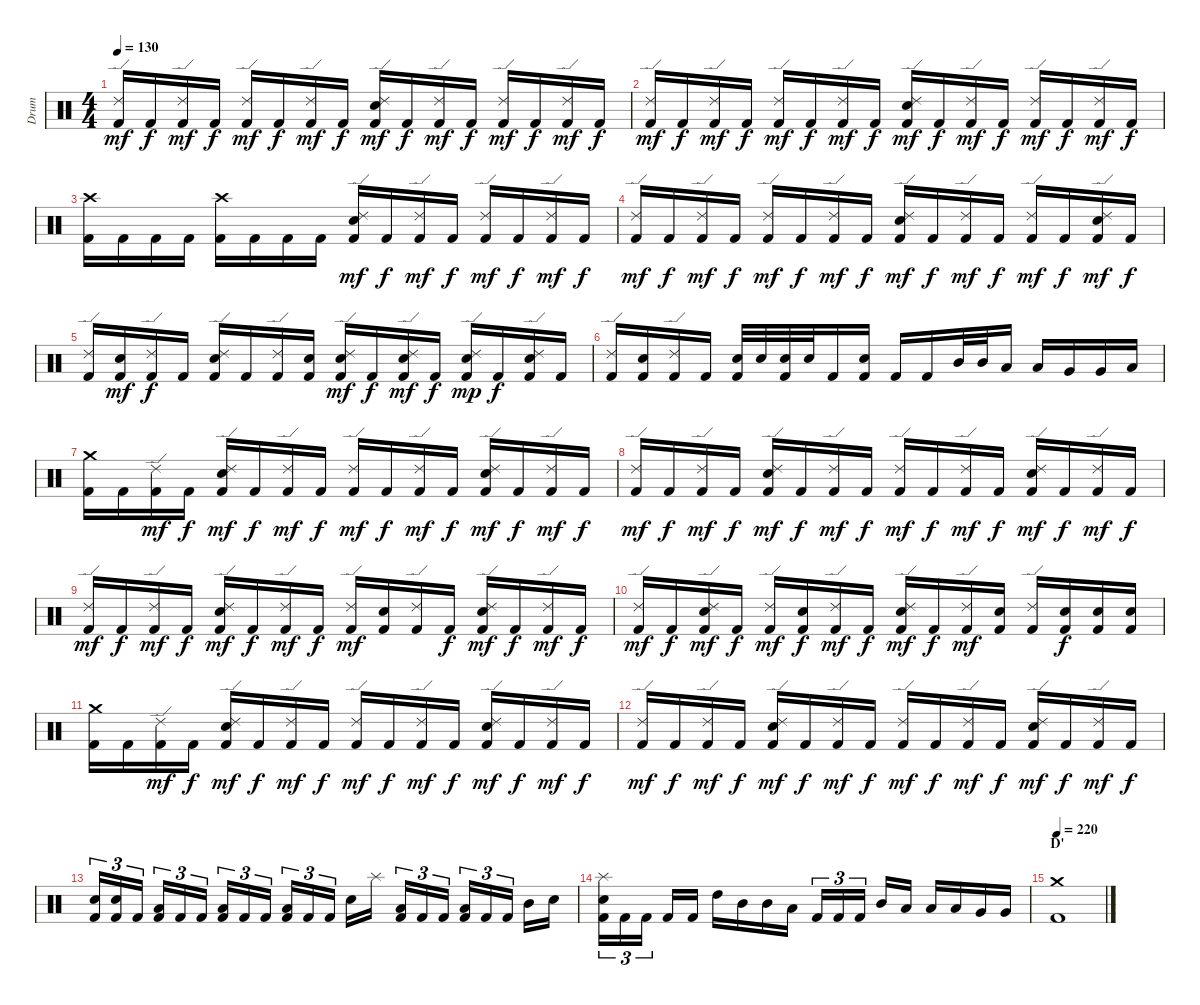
\track ("Drum" "Drum") {instrument percussion}
\staff {score}
\articulation defaults
\ts (4 4)
\tempo 130
\clef neutral
\ks c
("Ride (edge) 2" "Kick (hit) 2").16{dy mf} "Kick (hit) 2".16{dy f} ("Ride (edge) 2" "Kick (hit) 2").16{dy mf} "Kick (hit) 2".16{dy f} ("Ride (edge) 2" "Kick (hit) 2").16{dy mf} "Kick (hit) 2".16{dy f} ("Ride (edge) 2" "Kick (hit) 2").16{dy mf} "Kick (hit) 2".16{dy f} ("Ride (edge) 2" "Electric Snare (hit)" "Kick (hit) 2").16{dy mf} "Kick (hit) 2".16{dy f} ("Ride (edge) 2" "Kick (hit) 2").16{dy mf} "Kick (hit) 2".16{dy f} ("Ride (edge) 2" "Kick (hit) 2").16{dy mf} "Kick (hit) 2".16{dy f} ("Ride (edge) 2" "Kick (hit) 2").16{dy mf} "Kick (hit) 2".16{dy f} |
("Ride (edge) 2" "Kick (hit) 2").16{dy mf} "Kick (hit) 2".16{dy f} ("Ride (edge) 2" "Kick (hit) 2").16{dy mf} "Kick (hit) 2".16{dy f} ("Ride (edge) 2" "Kick (hit) 2").16{dy mf} "Kick (hit) 2".16{dy f} ("Ride (edge) 2" "Kick (hit) 2").16{dy mf} "Kick (hit) 2".16{dy f} ("Ride (edge) 2" "Electric Snare (hit)" "Kick (hit) 2").16{dy mf} "Kick (hit) 2".16{dy f} ("Ride (edge) 2" "Kick (hit) 2").16{dy mf} "Kick (hit) 2".16{dy f} ("Ride (edge) 2" "Kick (hit) 2").16{dy mf} "Kick (hit) 2".16{dy f} ("Ride (edge) 2" "Kick (hit) 2").16{dy mf} "Kick (hit) 2".16{dy f} |
("Crash high (hit)" "Kick (hit) 2").16 "Kick (hit) 2".16 "Kick (hit) 2".16 "Kick (hit) 2".16 ("Crash high (hit)" "Kick (hit) 2").16 "Kick (hit) 2".16 "Kick (hit) 2".16 "Kick (hit) 2".16 ("Ride (edge) 2" "Electric Snare (hit)" "Kick (hit) 2").16{dy mf} "Kick (hit) 2".16{dy f} ("Ride (edge) 2" "Kick (hit) 2").16{dy mf} "Kick (hit) 2".16{dy f} ("Ride (edge) 2" "Kick (hit) 2").16{dy mf} "Kick (hit) 2".16{dy f} ("Ride (edge) 2" "Kick (hit) 2").16{dy mf} "Kick (hit) 2".16{dy f} |
("Ride (edge) 2" "Kick (hit) 2").16{dy mf} "Kick (hit) 2".16{dy f} ("Ride (edge) 2" "Kick (hit) 2").16{dy mf} "Kick (hit) 2".16{dy f} ("Ride (edge) 2" "Kick (hit) 2").16{dy mf} "Kick (hit) 2".16{dy f} ("Ride (edge) 2" "Kick (hit) 2").16{dy mf} "Kick (hit) 2".16{dy f} ("Ride (edge) 2" "Electric Snare (hit)" "Kick (hit) 2").16{dy mf} "Kick (hit) 2".16{dy f} ("Ride (edge) 2" "Kick (hit) 2").16{dy mf} "Kick (hit) 2".16{dy f} ("Ride (edge) 2" "Kick (hit) 2").16{dy mf} "Kick (hit) 2".16{dy f} ("Ride (edge) 2" "Electric Snare (hit)" "Kick (hit) 2").16{dy mf} "Kick (hit) 2".16{dy f} |
("Ride (edge) 2" "Kick (hit) 2").16 ("Electric Snare (hit)" "Kick (hit) 2").16{dy mf} ("Ride (edge) 2" "Kick (hit) 2").16{dy f} "Kick (hit) 2".16 ("Ride (edge) 2" "Electric Snare (hit)" "Kick (hit) 2").16 "Kick (hit) 2".16 ("Ride (edge) 2" "Kick (hit) 2").16 ("Electric Snare (hit)" "Kick (hit) 2").16 ("Ride (edge) 2" "Electric Snare (hit)" "Kick (hit) 2").16{dy mf} "Kick (hit) 2".16{dy f} ("Ride (edge) 2" "Electric Snare (hit)" "Kick (hit) 2").16{dy mf} "Kick (hit) 2".16{dy f} ("Ride (edge) 2" "Electric Snare (hit)" "Kick (hit) 2").16{dy mp} "Kick (hit) 2".16{dy f} ("Ride (edge) 2" "Electric Snare (hit)" "Kick (hit) 2").16 "Kick (hit) 2".16 |
("Ride (edge) 2" "Kick (hit) 2").16 ("Electric Snare (hit)" "Kick (hit) 2").16 ("Ride (edge) 2" "Kick (hit) 2").16 "Kick (hit) 2".16 ("Electric Snare (hit)" "Kick (hit) 2").32 "Electric Snare (hit)".32 ("Electric Snare (hit)" "Kick (hit) 2").32 "Electric Snare (hit)".32 "Kick (hit) 2".16 ("Electric Snare (hit)" "Kick (hit) 2").16 "Kick (hit) 2".16 "Kick (hit) 2".16 "Mid Tom (hit)".32 "Mid Tom (hit)".32 "Low Tom (hit)".16 "Low Tom (hit)".16 "Very Low Tom (hit)".16 "Very Low Tom (hit)".16 "Low Floor Tom (hit)".16 |
("Crash medium (hit)" "Kick (hit) 2").16 "Kick (hit) 2".16 ("Ride (edge) 2" "Kick (hit) 2").16{dy mf} "Kick (hit) 2".16{dy f} ("Ride (edge) 2" "Electric Snare (hit)" "Kick (hit) 2").16{dy mf} "Kick (hit) 2".16{dy f} ("Ride (edge) 2" "Kick (hit) 2").16{dy mf} "Kick (hit) 2".16{dy f} ("Ride (edge) 2" "Kick (hit) 2").16{dy mf} "Kick (hit) 2".16{dy f} ("Ride (edge) 2" "Kick (hit) 2").16{dy mf} "Kick (hit) 2".16{dy f} ("Ride (edge) 2" "Electric Snare (hit)" "Kick (hit) 2").16{dy mf} "Kick (hit) 2".16{dy f} ("Ride (edge) 2" "Kick (hit) 2").16{dy mf} "Kick (hit) 2".16{dy f} |
("Ride (edge) 2" "Kick (hit) 2").16{dy mf} "Kick (hit) 2".16{dy f} ("Ride (edge) 2" "Kick (hit) 2").16{dy mf} "Kick (hit) 2".16{dy f} ("Ride (edge) 2" "Electric Snare (hit)" "Kick (hit) 2").16{dy mf} "Kick (hit) 2".16{dy f} ("Ride (edge) 2" "Kick (hit) 2").16{dy mf} "Kick (hit) 2".16{dy f} ("Ride (edge) 2" "Kick (hit) 2").16{dy mf} "Kick (hit) 2".16{dy f} ("Ride (edge) 2" "Kick (hit) 2").16{dy mf} "Kick (hit) 2".16{dy f} ("Ride (edge) 2" "Electric Snare (hit)" "Kick (hit) 2").16{dy mf} "Kick (hit) 2".16{dy f} ("Ride (edge) 2" "Kick (hit) 2").16{dy mf} "Kick (hit) 2".16{dy f} |
("Ride (edge) 2" "Kick (hit) 2").16{dy mf} "Kick (hit) 2".16{dy f} ("Ride (edge) 2" "Kick (hit) 2").16{dy mf} "Kick (hit) 2".16{dy f} ("Ride (edge) 2" "Electric Snare (hit)" "Kick (hit) 2").16{dy mf} "Kick (hit) 2".16{dy f} ("Ride (edge) 2" "Kick (hit) 2").16{dy mf} "Kick (hit) 2".16{dy f} ("Ride (edge) 2" "Kick (hit) 2").16{dy mf} ("Electric Snare (hit)" "Kick (hit) 2").16 ("Ride (edge) 2" "Kick (hit) 2").16 "Kick (hit) 2".16{dy f} ("Ride (edge) 2" "Electric Snare (hit)" "Kick (hit) 2").16{dy mf} "Kick (hit) 2".16{dy f} ("Ride (edge) 2" "Kick (hit) 2").16{dy mf} "Kick (hit) 2".16{dy f} |
("Ride (edge) 2" "Kick (hit) 2").16{dy mf} "Kick (hit) 2".16{dy f} ("Ride (edge) 2" "Electric Snare (hit)" "Kick (hit) 2").16{dy mf} "Kick (hit) 2".16{dy f} ("Ride (edge) 2" "Kick (hit) 2").16{dy mf} ("Electric Snare (hit)" "Kick (hit) 2").16{dy f} ("Ride (edge) 2" "Kick (hit) 2").16{dy mf} "Kick (hit) 2".16{dy f} ("Ride (edge) 2" "Electric Snare (hit)" "Kick (hit) 2").16{dy mf} "Kick (hit) 2".16{dy f} ("Ride (edge) 2" "Kick (hit) 2").16{dy mf} ("Electric Snare (hit)" "Kick (hit) 2").16 ("Ride (edge) 2" "Kick (hit) 2").16 ("Electric Snare (hit)" "Kick (hit) 2").16{dy f} ("Electric Snare (hit)" "Kick (hit) 2").16 ("Electric Snare (hit)" "Kick (hit) 2").16 |
("Crash medium (hit)" "Kick (hit) 2").16 "Kick (hit) 2".16 ("Ride (edge) 2" "Kick (hit) 2").16{dy mf} "Kick (hit) 2".16{dy f} ("Ride (edge) 2" "Electric Snare (hit)" "Kick (hit) 2").16{dy mf} "Kick (hit) 2".16{dy f} ("Ride (edge) 2" "Kick (hit) 2").16{dy mf} "Kick (hit) 2".16{dy f} ("Ride (edge) 2" "Kick (hit) 2").16{dy mf} "Kick (hit) 2".16{dy f} ("Ride (edge) 2" "Kick (hit) 2").16{dy mf} "Kick (hit) 2".16{dy f} ("Ride (edge) 2" "Electric Snare (hit)" "Kick (hit) 2").16{dy mf} "Kick (hit) 2".16{dy f} ("Ride (edge) 2" "Kick (hit) 2").16{dy mf} "Kick (hit) 2".16{dy f} |
("Ride (edge) 2" "Kick (hit) 2").16{dy mf} "Kick (hit) 2".16{dy f} ("Ride (edge) 2" "Kick (hit) 2").16{dy mf} "Kick (hit) 2".16{dy f} ("Ride (edge) 2" "Electric Snare (hit)" "Kick (hit) 2").16{dy mf} "Kick (hit) 2".16{dy f} ("Ride (edge) 2" "Kick (hit) 2").16{dy mf} "Kick (hit) 2".16{dy f} ("Ride (edge) 2" "Kick (hit) 2").16{dy mf} "Kick (hit) 2".16{dy f} ("Ride (edge) 2" "Kick (hit) 2").16{dy mf} "Kick (hit) 2".16{dy f} ("Ride (edge) 2" "Electric Snare (hit)" "Kick (hit) 2").16{dy mf} "Kick (hit) 2".16{dy f} ("Ride (edge) 2" "Kick (hit) 2").16{dy mf} "Kick (hit) 2".16{dy f} |
("Electric Snare (hit)" "Kick (hit) 2").16{tu (3 2)} ("Electric Snare (hit)" "Kick (hit) 2").16{tu (3 2)} "Kick (hit) 2".16{tu (3 2)} ("Low Tom (hit)" "Kick (hit) 2").16{tu (3 2)} "Kick (hit) 2".16{tu (3 2)} "Kick (hit) 2".16{tu (3 2)} ("Low Tom (hit)" "Kick (hit) 2").16{tu (3 2)} "Kick (hit) 2".16{tu (3 2)} "Kick (hit) 2".16{tu (3 2)} ("Low Tom (hit)" "Kick (hit) 2").16{tu (3 2)} "Kick (hit) 2".16{tu (3 2)} "Kick (hit) 2".16{tu (3 2)} "Electric Snare (hit)".16 "Splash (hit)".16 ("Low Tom (hit)" "Kick (hit) 2").16{tu (3 2)} "Kick (hit) 2".16{tu (3 2)} "Kick (hit) 2".16{tu (3 2)} ("Low Tom (hit)" "Kick (hit) 2").16{tu (3 2)} "Kick (hit) 2".16{tu (3 2)} "Kick (hit) 2".16{tu (3 2)} "Mid Tom (hit)".16 "Electric Snare (hit)".16 |
("Splash (hit)" "Electric Snare (hit)" "Kick (hit) 2").16{tu (3 2)} "Kick (hit) 2".16{tu (3 2)} "Kick (hit) 2".16{tu (3 2)} "Kick (hit) 2".16 "Kick (hit) 2".16 "High Tom (hit)".16 "Mid Tom (hit)".16 "Mid Tom (hit)".16 "Low Tom (hit)".16 "Kick (hit) 2".16{tu (3 2)} "Kick (hit) 2".16{tu (3 2)} "Kick (hit) 2".16{tu (3 2)} "Mid Tom (hit)".16 "Low Tom (hit)".16 "Low Tom (hit)".16 "Low Tom (hit)".16 "Very Low Tom (hit)".16 "Very Low Tom (hit)".16 |
\section ("" "D'")
\tempo 220
("Crash medium (hit)" "Kick (hit) 2").1
